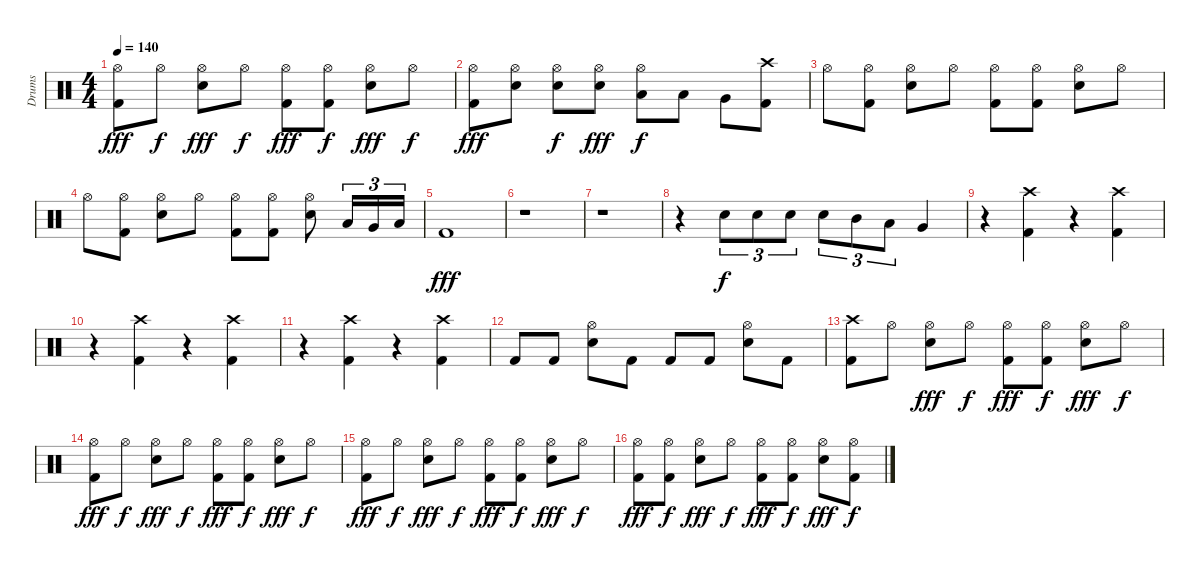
\track ("Drums" "Drums") {instrument percussion}
\staff {score}
\articulation defaults
\ts (4 4)
\tempo 140
\clef neutral
\ks c
("Hi-Hat (open)" "Kick (hit) 2").8{dy fff} "Hi-Hat (open)".8{dy f} ("Hi-Hat (open)" "Snare (hit) 2").8{dy fff} "Hi-Hat (open)".8{dy f} ("Hi-Hat (open)" "Kick (hit) 2").8{dy fff} ("Hi-Hat (open)" "Kick (hit) 2").8{dy f} ("Hi-Hat (open)" "Snare (hit) 2").8{dy fff} "Hi-Hat (open)".8{dy f} |
("Hi-Hat (open)" "Kick (hit) 2").8{dy fff} ("Hi-Hat (open)" "Snare (hit) 2").8 ("Hi-Hat (open)" "Snare (hit) 2").8{dy f} ("Hi-Hat (open)" "Snare (hit) 2").8{dy fff} ("Hi-Hat (open)" "Low Tom (hit)").8{dy f} "Low Tom (hit)".8 "Very Low Tom (hit)".8 ("Crash high (hit)" "Kick (hit) 2").8 |
"Hi-Hat (open)".8 ("Hi-Hat (open)" "Kick (hit) 2").8 ("Hi-Hat (open)" "Snare (hit) 2").8 "Hi-Hat (open)".8 ("Hi-Hat (open)" "Kick (hit) 2").8 ("Hi-Hat (open)" "Kick (hit) 2").8 ("Hi-Hat (open)" "Snare (hit) 2").8 "Hi-Hat (open)".8 |
"Hi-Hat (open)".8 ("Hi-Hat (open)" "Kick (hit) 2").8 ("Hi-Hat (open)" "Snare (hit) 2").8 "Hi-Hat (open)".8 ("Hi-Hat (open)" "Kick (hit) 2").8 ("Hi-Hat (open)" "Kick (hit) 2").8 ("Hi-Hat (open)" "Snare (hit) 2").8 "Low Tom (hit)".16{tu (3 2)} "Very Low Tom (hit)".16{tu (3 2)} "Low Floor Tom (hit)".16{tu (3 2)} |
"Kick (hit) 2".1{dy fff} |
r.1 |
r.1 |
r.4 "Snare (hit) 2".8{tu (3 2) dy f} "Snare (hit) 2".8{tu (3 2)} "Snare (hit) 2".8{tu (3 2)} "Snare (hit) 2".8{tu (3 2)} "Mid Tom (hit)".8{tu (3 2)} "Low Tom (hit)".8{tu (3 2)} "Very Low Tom (hit)".4 |
r.4 ("Crash high (hit)" "Kick (hit) 2").4 r.4 ("Crash high (hit)" "Kick (hit) 2").4 |
r.4 ("Crash high (hit)" "Kick (hit) 2").4 r.4 ("Crash high (hit)" "Kick (hit) 2").4 |
r.4 ("Crash high (hit)" "Kick (hit) 2").4 r.4 ("Crash high (hit)" "Kick (hit) 2").4 |
"Kick (hit) 2".8 "Kick (hit) 2".8 ("Hi-Hat (open)" "Snare (hit) 2").8 "Kick (hit) 2".8 "Kick (hit) 2".8 "Kick (hit) 2".8 ("Hi-Hat (open)" "Snare (hit) 2").8 "Kick (hit) 2".8 |
("Crash high (hit)" "Kick (hit) 2").8 "Hi-Hat (open)".8 ("Hi-Hat (open)" "Snare (hit) 2").8{dy fff} "Hi-Hat (open)".8{dy f} ("Hi-Hat (open)" "Kick (hit) 2").8{dy fff} ("Hi-Hat (open)" "Kick (hit) 2").8{dy f} ("Hi-Hat (open)" "Snare (hit) 2").8{dy fff} "Hi-Hat (open)".8{dy f} |
("Hi-Hat (open)" "Kick (hit) 2").8{dy fff} "Hi-Hat (open)".8{dy f} ("Hi-Hat (open)" "Snare (hit) 2").8{dy fff} "Hi-Hat (open)".8{dy f} ("Hi-Hat (open)" "Kick (hit) 2").8{dy fff} ("Hi-Hat (open)" "Kick (hit) 2").8{dy f} ("Hi-Hat (open)" "Snare (hit) 2").8{dy fff} "Hi-Hat (open)".8{dy f} |
("Hi-Hat (open)" "Kick (hit) 2").8{dy fff} "Hi-Hat (open)".8{dy f} ("Hi-Hat (open)" "Snare (hit) 2").8{dy fff} "Hi-Hat (open)".8{dy f} ("Hi-Hat (open)" "Kick (hit) 2").8{dy fff} ("Hi-Hat (open)" "Kick (hit) 2").8{dy f} ("Hi-Hat (open)" "Snare (hit) 2").8{dy fff} "Hi-Hat (open)".8{dy f} |
("Hi-Hat (open)" "Kick (hit) 2").8{dy fff} ("Hi-Hat (open)" "Kick (hit) 2").8{dy f} ("Hi-Hat (open)" "Snare (hit) 2").8{dy fff} "Hi-Hat (open)".8{dy f} ("Hi-Hat (open)" "Kick (hit) 2").8{dy fff} ("Hi-Hat (open)" "Kick (hit) 2").8{dy f} ("Hi-Hat (open)" "Snare (hit) 2").8{dy fff} ("Hi-Hat (open)" "Kick (hit) 2").8{dy f}
